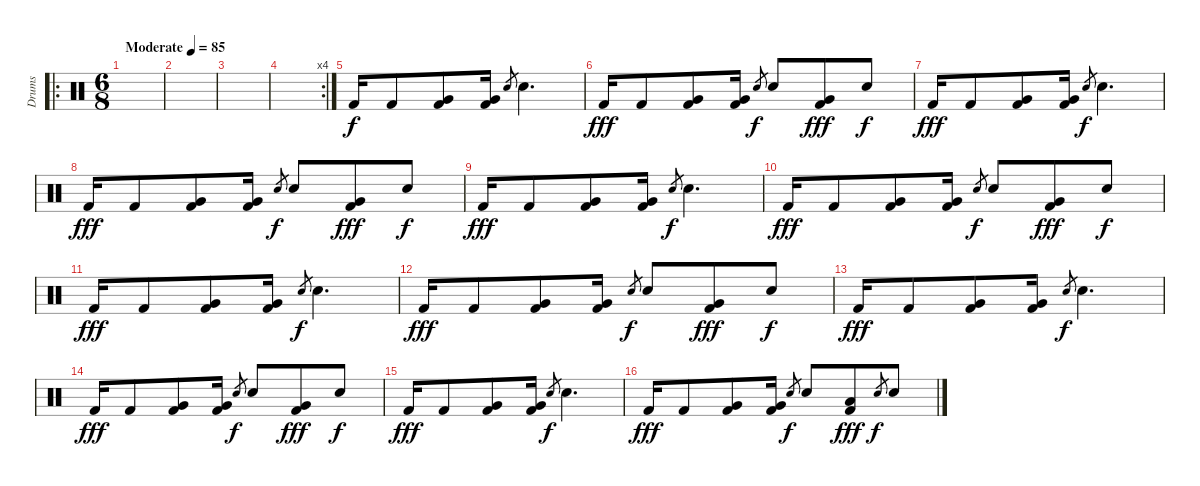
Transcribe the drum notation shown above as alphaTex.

\track ("Drums" "Drums") {instrument percussion}
\staff {score}
\articulation defaults
\ro
\ts (6 8)
\tempo (85 "Moderate")
\clef neutral
\ks c
|
|
|
\rc 4
|
"Kick (hit) 2".16 "Kick (hit) 2".8 ("Very Low Tom (hit)" "Kick (hit) 2").8 ("Very Low Tom (hit)" "Kick (hit) 2").16 "Electric Snare (hit)".8{gr dy f} "Electric Snare (hit)".4{d} |
"Kick (hit) 2".16{dy fff} "Kick (hit) 2".8 ("Very Low Tom (hit)" "Kick (hit) 2").8 ("Very Low Tom (hit)" "Kick (hit) 2").16 "Electric Snare (hit)".8{gr dy f} "Electric Snare (hit)".8 ("Very Low Tom (hit)" "Kick (hit) 2").8{dy fff} "Electric Snare (hit)".8{dy f} |
"Kick (hit) 2".16{dy fff} "Kick (hit) 2".8 ("Very Low Tom (hit)" "Kick (hit) 2").8 ("Very Low Tom (hit)" "Kick (hit) 2").16 "Electric Snare (hit)".8{gr dy f} "Electric Snare (hit)".4{d} |
"Kick (hit) 2".16{dy fff} "Kick (hit) 2".8 ("Very Low Tom (hit)" "Kick (hit) 2").8 ("Very Low Tom (hit)" "Kick (hit) 2").16 "Electric Snare (hit)".8{gr dy f} "Electric Snare (hit)".8 ("Very Low Tom (hit)" "Kick (hit) 2").8{dy fff} "Electric Snare (hit)".8{dy f} |
"Kick (hit) 2".16{dy fff} "Kick (hit) 2".8 ("Very Low Tom (hit)" "Kick (hit) 2").8 ("Very Low Tom (hit)" "Kick (hit) 2").16 "Electric Snare (hit)".8{gr dy f} "Electric Snare (hit)".4{d} |
"Kick (hit) 2".16{dy fff} "Kick (hit) 2".8 ("Very Low Tom (hit)" "Kick (hit) 2").8 ("Very Low Tom (hit)" "Kick (hit) 2").16 "Electric Snare (hit)".8{gr dy f} "Electric Snare (hit)".8 ("Very Low Tom (hit)" "Kick (hit) 2").8{dy fff} "Electric Snare (hit)".8{dy f} |
"Kick (hit) 2".16{dy fff} "Kick (hit) 2".8 ("Very Low Tom (hit)" "Kick (hit) 2").8 ("Very Low Tom (hit)" "Kick (hit) 2").16 "Electric Snare (hit)".8{gr dy f} "Electric Snare (hit)".4{d} |
"Kick (hit) 2".16{dy fff} "Kick (hit) 2".8 ("Very Low Tom (hit)" "Kick (hit) 2").8 ("Very Low Tom (hit)" "Kick (hit) 2").16 "Electric Snare (hit)".8{gr dy f} "Electric Snare (hit)".8 ("Very Low Tom (hit)" "Kick (hit) 2").8{dy fff} "Electric Snare (hit)".8{dy f} |
"Kick (hit) 2".16{dy fff} "Kick (hit) 2".8 ("Very Low Tom (hit)" "Kick (hit) 2").8 ("Very Low Tom (hit)" "Kick (hit) 2").16 "Electric Snare (hit)".8{gr dy f} "Electric Snare (hit)".4{d} |
"Kick (hit) 2".16{dy fff} "Kick (hit) 2".8 ("Very Low Tom (hit)" "Kick (hit) 2").8 ("Very Low Tom (hit)" "Kick (hit) 2").16 "Electric Snare (hit)".8{gr dy f} "Electric Snare (hit)".8 ("Very Low Tom (hit)" "Kick (hit) 2").8{dy fff} "Electric Snare (hit)".8{dy f} |
"Kick (hit) 2".16{dy fff} "Kick (hit) 2".8 ("Very Low Tom (hit)" "Kick (hit) 2").8 ("Very Low Tom (hit)" "Kick (hit) 2").16 "Electric Snare (hit)".8{gr dy f} "Electric Snare (hit)".4{d} |
"Kick (hit) 2".16{dy fff} "Kick (hit) 2".8 ("Very Low Tom (hit)" "Kick (hit) 2").8 ("Very Low Tom (hit)" "Kick (hit) 2").16 "Electric Snare (hit)".8{gr dy f} "Electric Snare (hit)".8 ("Low Tom (hit)" "Kick (hit) 2").8{dy fff} "Electric Snare (hit)".8{gr dy f} "Electric Snare (hit)".8
